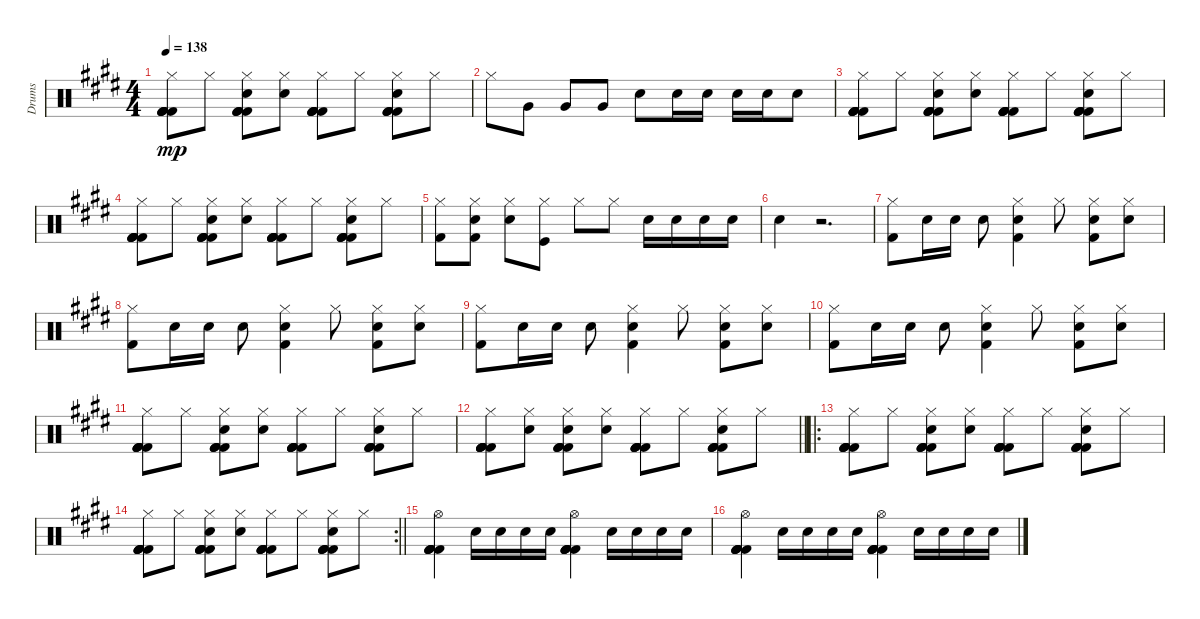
\track ("Drums" "Drums") {instrument percussion}
\staff {score}
\articulation defaults
\ts (4 4)
\tempo 138
\clef neutral
\ks e
("Hi-Hat (closed)" "Kick (hit) 2" "Kick (hit) 2" "Kick (hit) 2" "Kick (hit) 2" "Kick (hit) 2").8{dy mp} "Hi-Hat (closed)".8 ("Hi-Hat (closed)" "Snare (hit) 2" "Kick (hit) 2" "Kick (hit) 2" "Kick (hit) 2" "Kick (hit) 2").8 ("Hi-Hat (closed)" "Snare (hit) 2").8 ("Hi-Hat (closed)" "Kick (hit) 2" "Kick (hit) 2" "Kick (hit) 2" "Kick (hit) 2" "Kick (hit) 2").8 "Hi-Hat (closed)".8 ("Hi-Hat (closed)" "Snare (hit) 2" "Kick (hit) 2" "Kick (hit) 2" "Kick (hit) 2" "Kick (hit) 2").8 "Hi-Hat (closed)".8 |
"Hi-Hat (closed)".8 "Very Low Tom (hit)".8 "Very Low Tom (hit)".8 "Very Low Tom (hit)".8 "Snare (hit) 2".8 "Snare (hit) 2".16 "Snare (hit) 2".16 "Snare (hit) 2".16 "Snare (hit) 2".16 "Snare (hit) 2".8 |
("Hi-Hat (closed)" "Kick (hit) 2" "Kick (hit) 2" "Kick (hit) 2" "Kick (hit) 2" "Kick (hit) 2").8 "Hi-Hat (closed)".8 ("Hi-Hat (closed)" "Snare (hit) 2" "Kick (hit) 2" "Kick (hit) 2" "Kick (hit) 2" "Kick (hit) 2").8 ("Hi-Hat (closed)" "Snare (hit) 2").8 ("Hi-Hat (closed)" "Kick (hit) 2" "Kick (hit) 2" "Kick (hit) 2" "Kick (hit) 2" "Kick (hit) 2").8 "Hi-Hat (closed)".8 ("Hi-Hat (closed)" "Snare (hit) 2" "Kick (hit) 2" "Kick (hit) 2" "Kick (hit) 2" "Kick (hit) 2").8 "Hi-Hat (closed)".8 |
("Hi-Hat (closed)" "Kick (hit) 2" "Kick (hit) 2" "Kick (hit) 2" "Kick (hit) 2" "Kick (hit) 2").8 "Hi-Hat (closed)".8 ("Hi-Hat (closed)" "Snare (hit) 2" "Kick (hit) 2" "Kick (hit) 2" "Kick (hit) 2" "Kick (hit) 2").8 ("Hi-Hat (closed)" "Snare (hit) 2").8 ("Hi-Hat (closed)" "Kick (hit) 2" "Kick (hit) 2" "Kick (hit) 2" "Kick (hit) 2" "Kick (hit) 2").8 "Hi-Hat (closed)".8 ("Hi-Hat (closed)" "Snare (hit) 2" "Kick (hit) 2" "Kick (hit) 2" "Kick (hit) 2" "Kick (hit) 2").8 "Hi-Hat (closed)".8 |
("Hi-Hat (closed)" "Kick (hit) 2").8 ("Hi-Hat (closed)" "Kick (hit) 2" "Snare (hit) 2").8 ("Hi-Hat (closed)" "Snare (hit) 2").8 ("Hi-Hat (closed)" "Kick (hit)").8 "Hi-Hat (closed)".8 "Hi-Hat (closed)".8 "Snare (hit) 2".16 "Snare (hit) 2".16 "Snare (hit) 2".16 "Snare (hit) 2".16 |
"Snare (hit) 2".4 r.2{d} |
("Hi-Hat (closed)" "Kick (hit) 2").8 "Snare (hit) 2".16 "Snare (hit) 2".16 "Snare (hit) 2".8 ("Hi-Hat (closed)" "Snare (hit) 2" "Kick (hit) 2").4 "Hi-Hat (closed)".8 ("Hi-Hat (closed)" "Snare (hit) 2" "Kick (hit) 2").8 ("Hi-Hat (closed)" "Snare (hit) 2").8 |
("Hi-Hat (closed)" "Kick (hit) 2").8 "Snare (hit) 2".16 "Snare (hit) 2".16 "Snare (hit) 2".8 ("Hi-Hat (closed)" "Snare (hit) 2" "Kick (hit) 2").4 "Hi-Hat (closed)".8 ("Hi-Hat (closed)" "Snare (hit) 2" "Kick (hit) 2").8 ("Hi-Hat (closed)" "Snare (hit) 2").8 |
("Hi-Hat (closed)" "Kick (hit) 2").8 "Snare (hit) 2".16 "Snare (hit) 2".16 "Snare (hit) 2".8 ("Hi-Hat (closed)" "Snare (hit) 2" "Kick (hit) 2").4 "Hi-Hat (closed)".8 ("Hi-Hat (closed)" "Snare (hit) 2" "Kick (hit) 2").8 ("Hi-Hat (closed)" "Snare (hit) 2").8 |
("Hi-Hat (closed)" "Kick (hit) 2").8 "Snare (hit) 2".16 "Snare (hit) 2".16 "Snare (hit) 2".8 ("Hi-Hat (closed)" "Snare (hit) 2" "Kick (hit) 2").4 "Hi-Hat (closed)".8 ("Hi-Hat (closed)" "Snare (hit) 2" "Kick (hit) 2").8 ("Hi-Hat (closed)" "Snare (hit) 2").8 |
("Hi-Hat (closed)" "Kick (hit) 2" "Kick (hit) 2" "Kick (hit) 2" "Kick (hit) 2" "Kick (hit) 2").8 "Hi-Hat (closed)".8 ("Hi-Hat (closed)" "Snare (hit) 2" "Kick (hit) 2" "Kick (hit) 2" "Kick (hit) 2" "Kick (hit) 2").8 ("Hi-Hat (closed)" "Snare (hit) 2").8 ("Hi-Hat (closed)" "Kick (hit) 2" "Kick (hit) 2" "Kick (hit) 2" "Kick (hit) 2" "Kick (hit) 2").8 "Hi-Hat (closed)".8 ("Hi-Hat (closed)" "Snare (hit) 2" "Kick (hit) 2" "Kick (hit) 2" "Kick (hit) 2" "Kick (hit) 2").8 "Hi-Hat (closed)".8 |
\barLineRight lightlight
("Hi-Hat (closed)" "Kick (hit) 2" "Kick (hit) 2" "Kick (hit) 2" "Kick (hit) 2" "Kick (hit) 2").8 ("Hi-Hat (closed)" "Snare (hit) 2").8 ("Hi-Hat (closed)" "Snare (hit) 2" "Kick (hit) 2" "Kick (hit) 2" "Kick (hit) 2" "Kick (hit) 2").8 ("Hi-Hat (closed)" "Snare (hit) 2").8 ("Hi-Hat (closed)" "Kick (hit) 2" "Kick (hit) 2" "Kick (hit) 2" "Kick (hit) 2" "Kick (hit) 2").8 "Hi-Hat (closed)".8 ("Hi-Hat (closed)" "Snare (hit) 2" "Kick (hit) 2" "Kick (hit) 2" "Kick (hit) 2" "Kick (hit) 2").8 "Hi-Hat (closed)".8 |
\ro
("Hi-Hat (closed)" "Kick (hit) 2" "Kick (hit) 2" "Kick (hit) 2" "Kick (hit) 2" "Kick (hit) 2").8 "Hi-Hat (closed)".8 ("Hi-Hat (closed)" "Snare (hit) 2" "Kick (hit) 2" "Kick (hit) 2" "Kick (hit) 2" "Kick (hit) 2").8 ("Hi-Hat (closed)" "Snare (hit) 2").8 ("Hi-Hat (closed)" "Kick (hit) 2" "Kick (hit) 2" "Kick (hit) 2" "Kick (hit) 2" "Kick (hit) 2").8 "Hi-Hat (closed)".8 ("Hi-Hat (closed)" "Snare (hit) 2" "Kick (hit) 2" "Kick (hit) 2" "Kick (hit) 2" "Kick (hit) 2").8 "Hi-Hat (closed)".8 |
\rc 2
\barLineRight lightlight
("Hi-Hat (closed)" "Kick (hit) 2" "Kick (hit) 2" "Kick (hit) 2" "Kick (hit) 2" "Kick (hit) 2").8 "Hi-Hat (closed)".8 ("Hi-Hat (closed)" "Snare (hit) 2" "Kick (hit) 2" "Kick (hit) 2" "Kick (hit) 2" "Kick (hit) 2").8 ("Hi-Hat (closed)" "Snare (hit) 2").8 ("Hi-Hat (closed)" "Kick (hit) 2" "Kick (hit) 2" "Kick (hit) 2" "Kick (hit) 2" "Kick (hit) 2").8 "Hi-Hat (closed)".8 ("Hi-Hat (closed)" "Snare (hit) 2" "Kick (hit) 2" "Kick (hit) 2" "Kick (hit) 2" "Kick (hit) 2").8 "Hi-Hat (closed)".8 |
("Hi-Hat (open)" "Kick (hit) 2" "Kick (hit) 2" "Kick (hit) 2" "Kick (hit) 2" "Kick (hit) 2").4 "Snare (hit) 2".16 "Snare (hit) 2".16 "Snare (hit) 2".16 "Snare (hit) 2".16 ("Hi-Hat (open)" "Kick (hit) 2" "Kick (hit) 2" "Kick (hit) 2" "Kick (hit) 2" "Kick (hit) 2").4 "Snare (hit) 2".16 "Snare (hit) 2".16 "Snare (hit) 2".16 "Snare (hit) 2".16 |
("Hi-Hat (open)" "Kick (hit) 2" "Kick (hit) 2" "Kick (hit) 2" "Kick (hit) 2" "Kick (hit) 2").4 "Snare (hit) 2".16 "Snare (hit) 2".16 "Snare (hit) 2".16 "Snare (hit) 2".16 ("Hi-Hat (open)" "Kick (hit) 2" "Kick (hit) 2" "Kick (hit) 2" "Kick (hit) 2" "Kick (hit) 2").4 "Snare (hit) 2".16 "Snare (hit) 2".16 "Snare (hit) 2".16 "Snare (hit) 2".16
